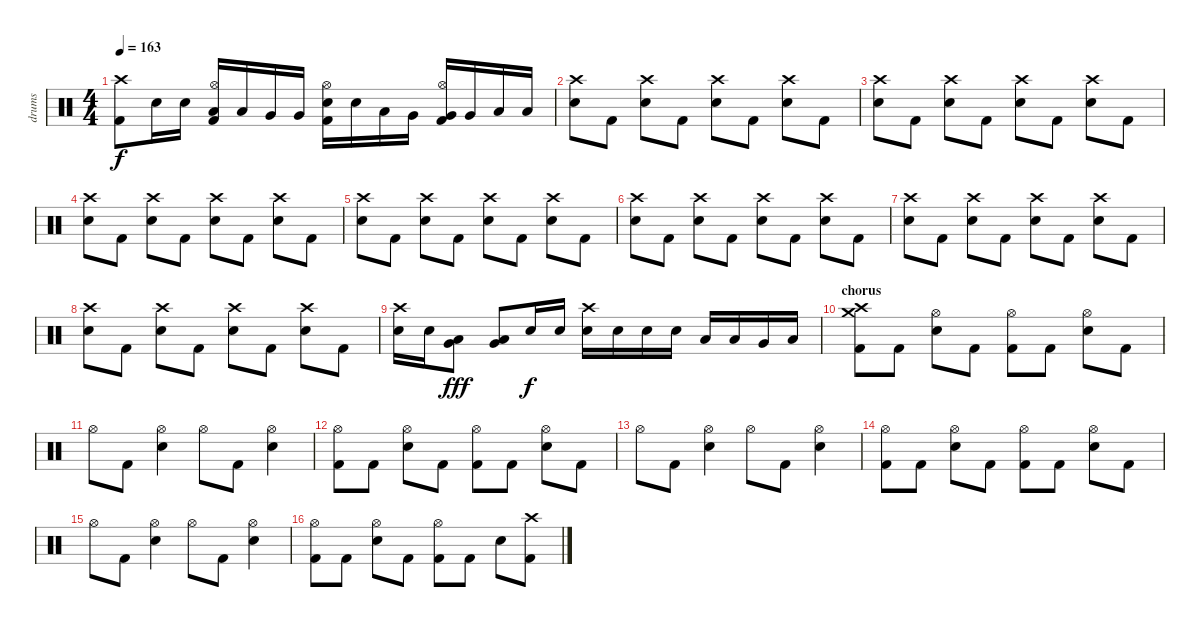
\track ("drums" "drums") {instrument percussion}
\staff {score}
\articulation defaults
\ts (4 4)
\tempo 163
\clef neutral
\ks c
("Crash high (hit)" "Kick (hit) 2").8{dy f} "Electric Snare (hit)".16 "Electric Snare (hit)".16 ("Hi-Hat (open)" "Low Tom (hit)" "Kick (hit) 2").16 "Low Tom (hit)".16 "Very Low Tom (hit)".16 "Very Low Tom (hit)".16 ("Hi-Hat (open)" "Electric Snare (hit)" "Kick (hit) 2").16 "Electric Snare (hit)".16 "Low Tom (hit)".16 "Very Low Tom (hit)".16 ("Hi-Hat (open)" "Very Low Tom (hit)" "Kick (hit) 2").16 "Very Low Tom (hit)".16 "Low Floor Tom (hit)".16 "Low Floor Tom (hit)".16 |
("Crash high (hit)" "Electric Snare (hit)").8 "Kick (hit) 2".8 ("Crash high (hit)" "Electric Snare (hit)").8 "Kick (hit) 2".8 ("Crash high (hit)" "Electric Snare (hit)").8 "Kick (hit) 2".8 ("Crash high (hit)" "Electric Snare (hit)").8 "Kick (hit) 2".8 |
("Crash high (hit)" "Electric Snare (hit)").8 "Kick (hit) 2".8 ("Crash high (hit)" "Electric Snare (hit)").8 "Kick (hit) 2".8 ("Crash high (hit)" "Electric Snare (hit)").8 "Kick (hit) 2".8 ("Crash high (hit)" "Electric Snare (hit)").8 "Kick (hit) 2".8 |
("Crash high (hit)" "Electric Snare (hit)").8 "Kick (hit) 2".8 ("Crash high (hit)" "Electric Snare (hit)").8 "Kick (hit) 2".8 ("Crash high (hit)" "Electric Snare (hit)").8 "Kick (hit) 2".8 ("Crash high (hit)" "Electric Snare (hit)").8 "Kick (hit) 2".8 |
("Crash high (hit)" "Electric Snare (hit)").8 "Kick (hit) 2".8 ("Crash high (hit)" "Electric Snare (hit)").8 "Kick (hit) 2".8 ("Crash high (hit)" "Electric Snare (hit)").8 "Kick (hit) 2".8 ("Crash high (hit)" "Electric Snare (hit)").8 "Kick (hit) 2".8 |
("Crash high (hit)" "Electric Snare (hit)").8 "Kick (hit) 2".8 ("Crash high (hit)" "Electric Snare (hit)").8 "Kick (hit) 2".8 ("Crash high (hit)" "Electric Snare (hit)").8 "Kick (hit) 2".8 ("Crash high (hit)" "Electric Snare (hit)").8 "Kick (hit) 2".8 |
("Crash high (hit)" "Electric Snare (hit)").8 "Kick (hit) 2".8 ("Crash high (hit)" "Electric Snare (hit)").8 "Kick (hit) 2".8 ("Crash high (hit)" "Electric Snare (hit)").8 "Kick (hit) 2".8 ("Crash high (hit)" "Electric Snare (hit)").8 "Kick (hit) 2".8 |
("Crash high (hit)" "Electric Snare (hit)").8 "Kick (hit) 2".8 ("Crash high (hit)" "Electric Snare (hit)").8 "Kick (hit) 2".8 ("Crash high (hit)" "Electric Snare (hit)").8 "Kick (hit) 2".8 ("Crash high (hit)" "Electric Snare (hit)").8 "Kick (hit) 2".8 |
("Crash high (hit)" "Electric Snare (hit)").16 "Electric Snare (hit)".16 ("Low Tom (hit)" "Very Low Tom (hit)").8{dy fff} ("Low Tom (hit)" "Very Low Tom (hit)").8 "Electric Snare (hit)".16{dy f} "Electric Snare (hit)".16 ("Crash high (hit)" "Electric Snare (hit)").16 "Electric Snare (hit)".16 "Electric Snare (hit)".16 "Electric Snare (hit)".16 "Low Tom (hit)".16 "Low Tom (hit)".16 "Very Low Tom (hit)".16 "Low Floor Tom (hit)".16 |
\section ("" "chorus")
("Crash high (hit)" "Crash medium (hit)" "Kick (hit) 2").8 "Kick (hit) 2".8 ("Hi-Hat (open)" "Electric Snare (hit)").8 "Kick (hit) 2".8 ("Hi-Hat (open)" "Kick (hit) 2").8 "Kick (hit) 2".8 ("Hi-Hat (open)" "Electric Snare (hit)").8 "Kick (hit) 2".8 |
"Hi-Hat (open)".8 "Kick (hit) 2".8 ("Hi-Hat (open)" "Electric Snare (hit)").4 "Hi-Hat (open)".8 "Kick (hit) 2".8 ("Hi-Hat (open)" "Electric Snare (hit)").4 |
("Hi-Hat (open)" "Kick (hit) 2").8 "Kick (hit) 2".8 ("Hi-Hat (open)" "Electric Snare (hit)").8 "Kick (hit) 2".8 ("Hi-Hat (open)" "Kick (hit) 2").8 "Kick (hit) 2".8 ("Hi-Hat (open)" "Electric Snare (hit)").8 "Kick (hit) 2".8 |
"Hi-Hat (open)".8 "Kick (hit) 2".8 ("Hi-Hat (open)" "Electric Snare (hit)").4 "Hi-Hat (open)".8 "Kick (hit) 2".8 ("Hi-Hat (open)" "Electric Snare (hit)").4 |
("Hi-Hat (open)" "Kick (hit) 2").8 "Kick (hit) 2".8 ("Hi-Hat (open)" "Electric Snare (hit)").8 "Kick (hit) 2".8 ("Hi-Hat (open)" "Kick (hit) 2").8 "Kick (hit) 2".8 ("Hi-Hat (open)" "Electric Snare (hit)").8 "Kick (hit) 2".8 |
"Hi-Hat (open)".8 "Kick (hit) 2".8 ("Hi-Hat (open)" "Electric Snare (hit)").4 "Hi-Hat (open)".8 "Kick (hit) 2".8 ("Hi-Hat (open)" "Electric Snare (hit)").4 |
("Hi-Hat (open)" "Kick (hit) 2").8 "Kick (hit) 2".8 ("Hi-Hat (open)" "Electric Snare (hit)").8 "Kick (hit) 2".8 ("Hi-Hat (open)" "Kick (hit) 2").8 "Kick (hit) 2".8 "Electric Snare (hit)".8 ("Crash high (hit)" "Kick (hit) 2").8
